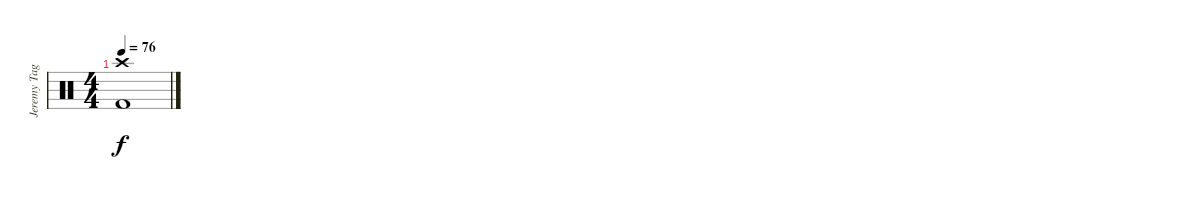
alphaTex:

\track ("Jeremy Taggart(Drums)" "Jeremy Tag") {instrument percussion}
\staff {score}
\articulation defaults
\ts (4 4)
\tempo 76
\clef neutral
\ks c
("Crash high (hit)" "Kick (hit) 2").1{dy f}
